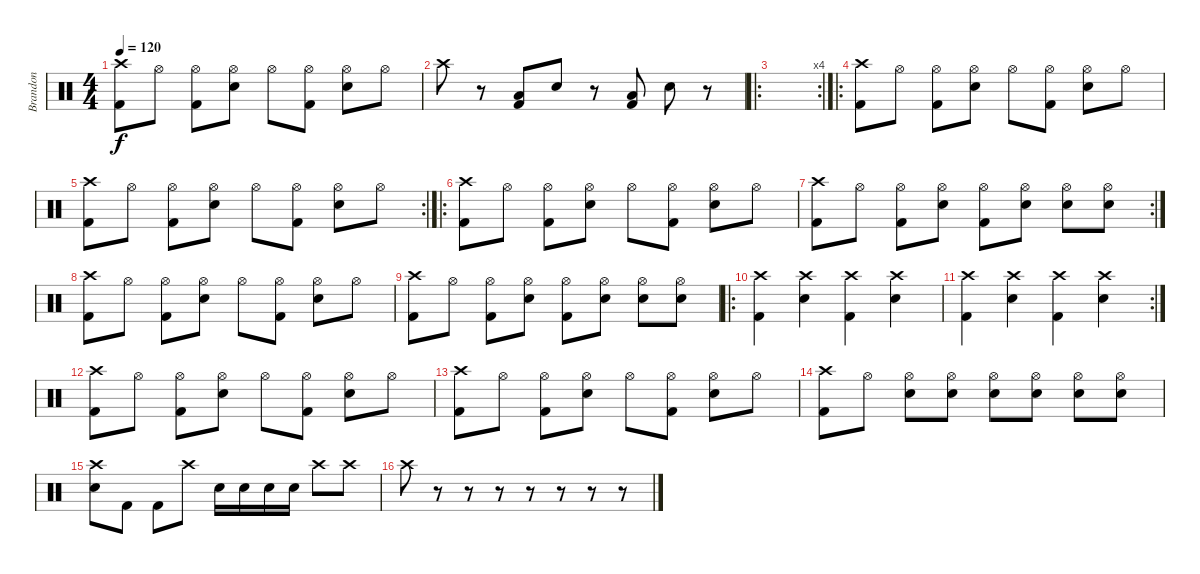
\track ("Brandon" "Brandon") {instrument percussion}
\staff {score}
\articulation defaults
\ts (4 4)
\tempo 120
\clef neutral
\ks c
("Crash high (hit)" "Kick (hit) 2").8{dy f} "Hi-Hat (open)".8 ("Hi-Hat (open)" "Kick (hit) 2").8 ("Hi-Hat (open)" "Snare (hit) 2").8 "Hi-Hat (open)".8 ("Hi-Hat (open)" "Kick (hit) 2").8 ("Hi-Hat (open)" "Snare (hit) 2").8 "Hi-Hat (open)".8 |
"Crash high (hit)".8 r.8 ("Low Floor Tom (hit)" "Kick (hit) 2").8 "Snare (hit) 2".8 r.8 ("Low Floor Tom (hit)" "Kick (hit) 2").8 "Snare (hit) 2".8 r.8 |
\ro
\rc 4
|
\ro
("Crash high (hit)" "Kick (hit) 2").8 "Hi-Hat (open)".8 ("Hi-Hat (open)" "Kick (hit) 2").8 ("Hi-Hat (open)" "Snare (hit) 2").8 "Hi-Hat (open)".8 ("Hi-Hat (open)" "Kick (hit) 2").8 ("Hi-Hat (open)" "Snare (hit) 2").8 "Hi-Hat (open)".8 |
\rc 2
("Crash high (hit)" "Kick (hit) 2").8 "Hi-Hat (open)".8 ("Hi-Hat (open)" "Kick (hit) 2").8 ("Hi-Hat (open)" "Snare (hit) 2").8 "Hi-Hat (open)".8 ("Hi-Hat (open)" "Kick (hit) 2").8 ("Hi-Hat (open)" "Snare (hit) 2").8 "Hi-Hat (open)".8 |
\ro
("Crash high (hit)" "Kick (hit) 2").8 "Hi-Hat (open)".8 ("Hi-Hat (open)" "Kick (hit) 2").8 ("Hi-Hat (open)" "Snare (hit) 2").8 "Hi-Hat (open)".8 ("Hi-Hat (open)" "Kick (hit) 2").8 ("Hi-Hat (open)" "Snare (hit) 2").8 "Hi-Hat (open)".8 |
\rc 2
("Crash high (hit)" "Kick (hit) 2").8 "Hi-Hat (open)".8 ("Hi-Hat (open)" "Kick (hit) 2").8 ("Hi-Hat (open)" "Snare (hit) 2").8 ("Hi-Hat (open)" "Kick (hit) 2").8 ("Hi-Hat (open)" "Snare (hit) 2").8 ("Hi-Hat (open)" "Snare (hit) 2").8 ("Hi-Hat (open)" "Snare (hit) 2").8 |
("Crash high (hit)" "Kick (hit) 2").8 "Hi-Hat (open)".8 ("Hi-Hat (open)" "Kick (hit) 2").8 ("Hi-Hat (open)" "Snare (hit) 2").8 "Hi-Hat (open)".8 ("Hi-Hat (open)" "Kick (hit) 2").8 ("Hi-Hat (open)" "Snare (hit) 2").8 "Hi-Hat (open)".8 |
("Crash high (hit)" "Kick (hit) 2").8 "Hi-Hat (open)".8 ("Hi-Hat (open)" "Kick (hit) 2").8 ("Hi-Hat (open)" "Snare (hit) 2").8 ("Hi-Hat (open)" "Kick (hit) 2").8 ("Hi-Hat (open)" "Snare (hit) 2").8 ("Hi-Hat (open)" "Snare (hit) 2").8 ("Hi-Hat (open)" "Snare (hit) 2").8 |
\ro
("Crash high (hit)" "Kick (hit) 2").4 ("Crash high (hit)" "Snare (hit) 2").4 ("Crash high (hit)" "Kick (hit) 2").4 ("Crash high (hit)" "Snare (hit) 2").4 |
\rc 2
("Crash high (hit)" "Kick (hit) 2").4 ("Crash high (hit)" "Snare (hit) 2").4 ("Crash high (hit)" "Kick (hit) 2").4 ("Crash high (hit)" "Snare (hit) 2").4 |
("Crash high (hit)" "Kick (hit) 2").8 "Hi-Hat (open)".8 ("Hi-Hat (open)" "Kick (hit) 2").8 ("Hi-Hat (open)" "Snare (hit) 2").8 "Hi-Hat (open)".8 ("Hi-Hat (open)" "Kick (hit) 2").8 ("Hi-Hat (open)" "Snare (hit) 2").8 "Hi-Hat (open)".8 |
("Crash high (hit)" "Kick (hit) 2").8 "Hi-Hat (open)".8 ("Hi-Hat (open)" "Kick (hit) 2").8 ("Hi-Hat (open)" "Snare (hit) 2").8 "Hi-Hat (open)".8 ("Hi-Hat (open)" "Kick (hit) 2").8 ("Hi-Hat (open)" "Snare (hit) 2").8 "Hi-Hat (open)".8 |
("Crash high (hit)" "Kick (hit) 2").8 "Hi-Hat (open)".8 ("Hi-Hat (open)" "Snare (hit) 2").8 ("Hi-Hat (open)" "Snare (hit) 2").8 ("Hi-Hat (open)" "Snare (hit) 2").8 ("Hi-Hat (open)" "Snare (hit) 2").8 ("Hi-Hat (open)" "Snare (hit) 2").8 ("Hi-Hat (open)" "Snare (hit) 2").8 |
("Snare (hit) 2" "Crash high (hit)").8 "Kick (hit) 2".8 "Kick (hit) 2".8 "Crash high (hit)".8 "Snare (hit) 2".16 "Snare (hit) 2".16 "Snare (hit) 2".16 "Snare (hit) 2".16 "Crash high (hit)".8 "Crash high (hit)".8 |
"Crash high (hit)".8 r.8 r.8 r.8 r.8 r.8 r.8 r.8
